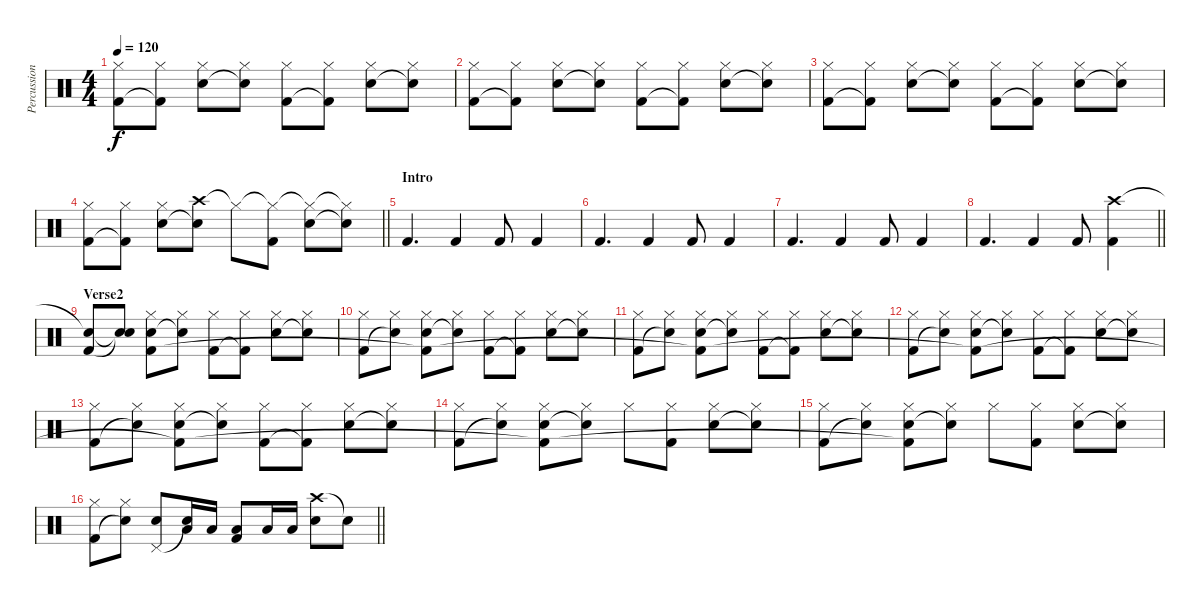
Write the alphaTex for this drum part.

\track ("Percussion" "Percussion") {instrument percussion}
\staff {score}
\articulation defaults
\ts (4 4)
\tempo 120
\clef neutral
\ks c
("Hi-Hat (closed)" "Kick (hit) 2").8{dy f} ("Hi-Hat (closed)" "Kick (hit) 2"{t}).8 ("Hi-Hat (closed)" "Electric Snare (hit)").8 ("Hi-Hat (closed)" "Electric Snare (hit)"{t}).8 ("Hi-Hat (closed)" "Kick (hit) 2").8 ("Hi-Hat (closed)" "Kick (hit) 2"{t}).8 ("Hi-Hat (closed)" "Electric Snare (hit)").8 ("Hi-Hat (closed)" "Electric Snare (hit)"{t}).8 |
("Hi-Hat (closed)" "Kick (hit) 2").8 ("Hi-Hat (closed)" "Kick (hit) 2"{t}).8 ("Hi-Hat (closed)" "Electric Snare (hit)").8 ("Hi-Hat (closed)" "Electric Snare (hit)"{t}).8 ("Hi-Hat (closed)" "Kick (hit) 2").8 ("Hi-Hat (closed)" "Kick (hit) 2"{t}).8 ("Hi-Hat (closed)" "Electric Snare (hit)").8 ("Hi-Hat (closed)" "Electric Snare (hit)"{t}).8 |
("Hi-Hat (closed)" "Kick (hit) 2").8 ("Hi-Hat (closed)" "Kick (hit) 2"{t}).8 ("Hi-Hat (closed)" "Electric Snare (hit)").8 ("Hi-Hat (closed)" "Electric Snare (hit)"{t}).8 ("Hi-Hat (closed)" "Kick (hit) 2").8 ("Hi-Hat (closed)" "Kick (hit) 2"{t}).8 ("Hi-Hat (closed)" "Electric Snare (hit)").8 ("Hi-Hat (closed)" "Electric Snare (hit)"{t}).8 |
\barLineRight lightlight
("Hi-Hat (closed)" "Kick (hit) 2").8 ("Hi-Hat (closed)" "Kick (hit) 2"{t}).8 ("Hi-Hat (closed)" "Electric Snare (hit)").8 ("Crash high (hit)" "Electric Snare (hit)"{t}).8 "Hi-Hat (closed)"{t}.8 ("Hi-Hat (closed)"{t} "Kick (hit) 2").8 ("Hi-Hat (closed)"{t} "Electric Snare (hit)").8 ("Hi-Hat (closed)"{t} "Electric Snare (hit)"{t}).8 |
\section ("" "Intro")
"Kick (hit) 2".4{d} "Kick (hit) 2".4 "Kick (hit) 2".8 "Kick (hit) 2".4 |
"Kick (hit) 2".4{d} "Kick (hit) 2".4 "Kick (hit) 2".8 "Kick (hit) 2".4 |
"Kick (hit) 2".4{d} "Kick (hit) 2".4 "Kick (hit) 2".8 "Kick (hit) 2".4 |
\barLineRight lightlight "Kick (hit) 2".4{d} "Kick (hit) 2".4 "Kick (hit) 2".8
("Crash high (hit)" "Kick (hit) 2").4 |
\section ("" "Verse2")
("Snare (hit)"{t} "Kick (hit) 2").8 ("Snare (hit)"{t} "Snare (hit)"{t}).8 ("Hi-Hat (closed)" "Electric Snare (hit)" "Kick (hit) 2").8 ("Hi-Hat (closed)" "Electric Snare (hit)"{t}).8 ("Hi-Hat (closed)" "Kick (hit) 2").8 ("Hi-Hat (closed)" "Kick (hit) 2"{t}).8 ("Hi-Hat (closed)" "Electric Snare (hit)").8 ("Hi-Hat (closed)" "Electric Snare (hit)"{t}).8 |
("Hi-Hat (closed)" "Kick (hit) 2").8 ("Hi-Hat (closed)" "Snare (hit)"{t}).8 ("Hi-Hat (closed)" "Electric Snare (hit)" "Kick (hit) 2"{t}).8 ("Hi-Hat (closed)" "Electric Snare (hit)"{t}).8 ("Hi-Hat (closed)" "Kick (hit) 2").8 ("Hi-Hat (closed)" "Kick (hit) 2"{t}).8 ("Hi-Hat (closed)" "Electric Snare (hit)").8 ("Hi-Hat (closed)" "Electric Snare (hit)"{t}).8 |
("Hi-Hat (closed)" "Kick (hit) 2").8 ("Hi-Hat (closed)" "Snare (hit)"{t}).8 ("Hi-Hat (closed)" "Electric Snare (hit)" "Kick (hit) 2"{t}).8 ("Hi-Hat (closed)" "Electric Snare (hit)"{t}).8 ("Hi-Hat (closed)" "Kick (hit) 2").8 ("Hi-Hat (closed)" "Kick (hit) 2"{t}).8 ("Hi-Hat (closed)" "Electric Snare (hit)").8 ("Hi-Hat (closed)" "Electric Snare (hit)"{t}).8 |
("Hi-Hat (closed)" "Kick (hit) 2").8 ("Hi-Hat (closed)" "Snare (hit)"{t}).8 ("Hi-Hat (closed)" "Electric Snare (hit)" "Kick (hit) 2"{t}).8 ("Hi-Hat (closed)" "Electric Snare (hit)"{t}).8 ("Hi-Hat (closed)" "Kick (hit) 2").8 ("Hi-Hat (closed)" "Kick (hit) 2"{t}).8 ("Hi-Hat (closed)" "Electric Snare (hit)").8 ("Hi-Hat (closed)" "Electric Snare (hit)"{t}).8 |
("Hi-Hat (closed)" "Kick (hit) 2").8 ("Hi-Hat (closed)" "Snare (hit)"{t}).8 ("Hi-Hat (closed)" "Electric Snare (hit)" "Kick (hit) 2"{t}).8 ("Hi-Hat (closed)" "Electric Snare (hit)"{t}).8 ("Hi-Hat (closed)" "Kick (hit) 2").8 ("Hi-Hat (closed)" "Kick (hit) 2"{t}).8 ("Hi-Hat (closed)" "Electric Snare (hit)").8 ("Hi-Hat (closed)" "Electric Snare (hit)"{t}).8 |
("Hi-Hat (closed)" "Kick (hit) 2").8 ("Hi-Hat (closed)" "Snare (hit)"{t}).8 ("Hi-Hat (closed)" "Electric Snare (hit)" "Kick (hit) 2"{t}).8 ("Hi-Hat (closed)" "Electric Snare (hit)"{t}).8 "Hi-Hat (closed)".8 ("Hi-Hat (closed)" "Kick (hit) 2").8 ("Hi-Hat (closed)" "Electric Snare (hit)").8 ("Hi-Hat (closed)" "Electric Snare (hit)"{t}).8 |
("Hi-Hat (closed)" "Kick (hit) 2").8 ("Hi-Hat (closed)" "Snare (hit)"{t}).8 ("Hi-Hat (closed)" "Electric Snare (hit)" "Kick (hit) 2"{t}).8 ("Hi-Hat (closed)" "Electric Snare (hit)"{t}).8 "Hi-Hat (closed)".8 ("Hi-Hat (closed)" "Kick (hit) 2").8 ("Hi-Hat (closed)" "Electric Snare (hit)").8 ("Hi-Hat (closed)" "Electric Snare (hit)"{t}).8 |
\barLineRight lightlight
("Hi-Hat (closed)" "Kick (hit) 2").8 ("Hi-Hat (closed)" "Snare (hit)"{t}).8 ("Pedal Hi-Hat (hit)" "Electric Snare (hit)").8 ("Snare (hit)"{t} "Low Floor Tom (hit)").16 "Low Floor Tom (hit)".16 ("Low Floor Tom (hit)" "Kick (hit) 2").8 "Low Floor Tom (hit)".16 "Low Floor Tom (hit)".16 ("Crash high (hit)" "Electric Snare (hit)").8 "Electric Snare (hit)"{t}.8
